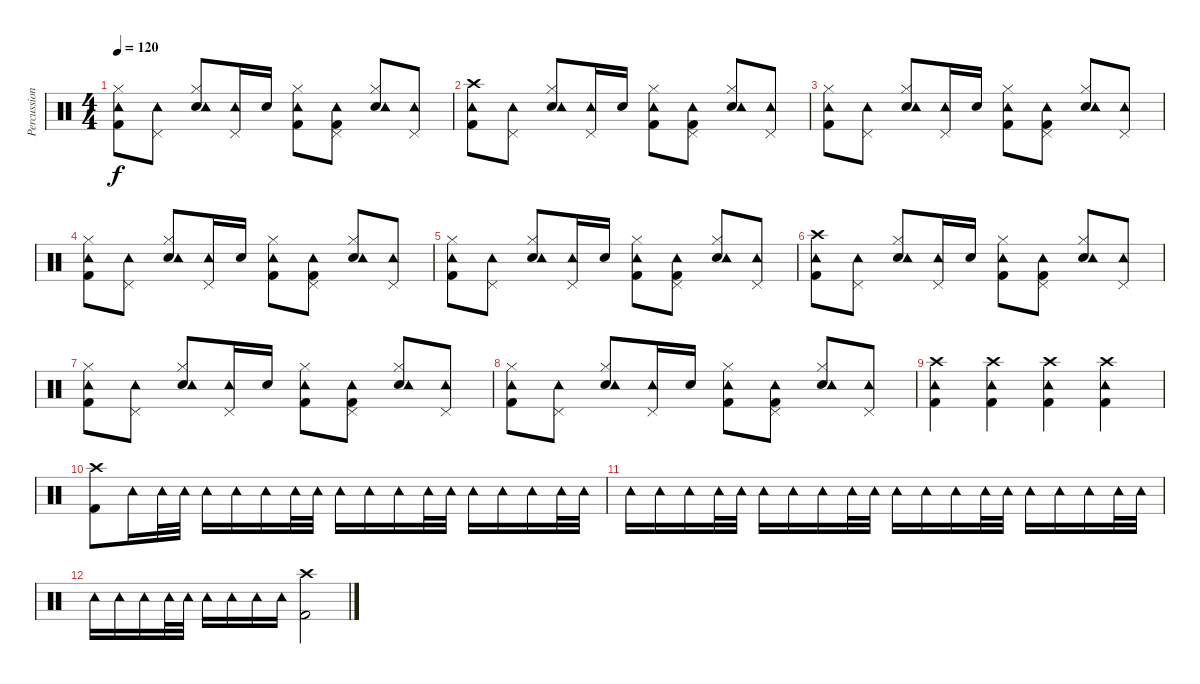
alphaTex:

\track ("Percussion" "Percussion") {instrument percussion}
\staff {score}
\articulation defaults
\ts (4 4)
\tempo 120
\clef neutral
\ks c
("Kick (hit) 2" "Tambourine (hit)" "Hi-Hat (closed)").8{dy f} ("Tambourine (hit)" "Pedal Hi-Hat (hit)").8 ("Electric Snare (hit)" "Tambourine (hit)" "Hi-Hat (closed)").8 ("Tambourine (hit)" "Pedal Hi-Hat (hit)").16 "Electric Snare (hit)".16 ("Kick (hit) 2" "Tambourine (hit)" "Hi-Hat (closed)").8 ("Kick (hit) 2" "Tambourine (hit)" "Pedal Hi-Hat (hit)").8 ("Electric Snare (hit)" "Tambourine (hit)" "Hi-Hat (closed)").8 ("Tambourine (hit)" "Pedal Hi-Hat (hit)").8 |
("Kick (hit) 2" "Tambourine (hit)" "Crash high (hit)").8 ("Tambourine (hit)" "Pedal Hi-Hat (hit)").8 ("Electric Snare (hit)" "Tambourine (hit)" "Hi-Hat (closed)").8 ("Tambourine (hit)" "Pedal Hi-Hat (hit)").16 "Electric Snare (hit)".16 ("Kick (hit) 2" "Tambourine (hit)" "Hi-Hat (closed)").8 ("Kick (hit) 2" "Tambourine (hit)" "Pedal Hi-Hat (hit)").8 ("Electric Snare (hit)" "Tambourine (hit)" "Hi-Hat (closed)").8 ("Tambourine (hit)" "Pedal Hi-Hat (hit)").8 |
("Kick (hit) 2" "Tambourine (hit)" "Hi-Hat (closed)").8 ("Tambourine (hit)" "Pedal Hi-Hat (hit)").8 ("Electric Snare (hit)" "Tambourine (hit)" "Hi-Hat (closed)").8 ("Tambourine (hit)" "Pedal Hi-Hat (hit)").16 "Electric Snare (hit)".16 ("Kick (hit) 2" "Tambourine (hit)" "Hi-Hat (closed)").8 ("Kick (hit) 2" "Tambourine (hit)" "Pedal Hi-Hat (hit)").8 ("Electric Snare (hit)" "Tambourine (hit)" "Hi-Hat (closed)").8 ("Tambourine (hit)" "Pedal Hi-Hat (hit)").8 |
("Kick (hit) 2" "Tambourine (hit)" "Hi-Hat (closed)").8 ("Tambourine (hit)" "Pedal Hi-Hat (hit)").8 ("Electric Snare (hit)" "Tambourine (hit)" "Hi-Hat (closed)").8 ("Tambourine (hit)" "Pedal Hi-Hat (hit)").16 "Electric Snare (hit)".16 ("Kick (hit) 2" "Tambourine (hit)" "Hi-Hat (closed)").8 ("Kick (hit) 2" "Tambourine (hit)" "Pedal Hi-Hat (hit)").8 ("Electric Snare (hit)" "Tambourine (hit)" "Hi-Hat (closed)").8 ("Tambourine (hit)" "Pedal Hi-Hat (hit)").8 |
("Kick (hit) 2" "Tambourine (hit)" "Hi-Hat (closed)").8 ("Tambourine (hit)" "Pedal Hi-Hat (hit)").8 ("Electric Snare (hit)" "Tambourine (hit)" "Hi-Hat (closed)").8 ("Tambourine (hit)" "Pedal Hi-Hat (hit)").16 "Electric Snare (hit)".16 ("Kick (hit) 2" "Tambourine (hit)" "Hi-Hat (closed)").8 ("Kick (hit) 2" "Tambourine (hit)" "Pedal Hi-Hat (hit)").8 ("Electric Snare (hit)" "Tambourine (hit)" "Hi-Hat (closed)").8 ("Tambourine (hit)" "Pedal Hi-Hat (hit)").8 |
("Kick (hit) 2" "Tambourine (hit)" "Crash high (hit)").8 ("Tambourine (hit)" "Pedal Hi-Hat (hit)").8 ("Electric Snare (hit)" "Tambourine (hit)" "Hi-Hat (closed)").8 ("Tambourine (hit)" "Pedal Hi-Hat (hit)").16 "Electric Snare (hit)".16 ("Kick (hit) 2" "Tambourine (hit)" "Hi-Hat (closed)").8 ("Kick (hit) 2" "Tambourine (hit)" "Pedal Hi-Hat (hit)").8 ("Electric Snare (hit)" "Tambourine (hit)" "Hi-Hat (closed)").8 ("Tambourine (hit)" "Pedal Hi-Hat (hit)").8 |
("Kick (hit) 2" "Tambourine (hit)" "Hi-Hat (closed)").8 ("Tambourine (hit)" "Pedal Hi-Hat (hit)").8 ("Electric Snare (hit)" "Tambourine (hit)" "Hi-Hat (closed)").8 ("Tambourine (hit)" "Pedal Hi-Hat (hit)").16 "Electric Snare (hit)".16 ("Kick (hit) 2" "Tambourine (hit)" "Hi-Hat (closed)").8 ("Kick (hit) 2" "Tambourine (hit)" "Pedal Hi-Hat (hit)").8 ("Electric Snare (hit)" "Tambourine (hit)" "Hi-Hat (closed)").8 ("Tambourine (hit)" "Pedal Hi-Hat (hit)").8 |
("Kick (hit) 2" "Tambourine (hit)" "Hi-Hat (closed)").8 ("Tambourine (hit)" "Pedal Hi-Hat (hit)").8 ("Electric Snare (hit)" "Tambourine (hit)" "Hi-Hat (closed)").8 ("Tambourine (hit)" "Pedal Hi-Hat (hit)").16 "Electric Snare (hit)".16 ("Kick (hit) 2" "Tambourine (hit)" "Hi-Hat (closed)").8 ("Kick (hit) 2" "Tambourine (hit)" "Pedal Hi-Hat (hit)").8 ("Electric Snare (hit)" "Tambourine (hit)" "Hi-Hat (closed)").8 ("Tambourine (hit)" "Pedal Hi-Hat (hit)").8 |
("Kick (hit) 2" "Tambourine (hit)" "Crash high (hit)").4 ("Kick (hit) 2" "Tambourine (hit)" "Crash high (hit)").4 ("Kick (hit) 2" "Tambourine (hit)" "Crash high (hit)").4 ("Kick (hit) 2" "Tambourine (hit)" "Crash high (hit)").4 |
("Kick (hit) 2" "Crash high (hit)").8 "Tambourine (hit)".16 "Tambourine (hit)".32 "Tambourine (hit)".32 "Tambourine (hit)".16 "Tambourine (hit)".16 "Tambourine (hit)".16 "Tambourine (hit)".32 "Tambourine (hit)".32 "Tambourine (hit)".16 "Tambourine (hit)".16 "Tambourine (hit)".16 "Tambourine (hit)".32 "Tambourine (hit)".32 "Tambourine (hit)".16 "Tambourine (hit)".16 "Tambourine (hit)".16 "Tambourine (hit)".32 "Tambourine (hit)".32 |
"Tambourine (hit)".16 "Tambourine (hit)".16 "Tambourine (hit)".16 "Tambourine (hit)".32 "Tambourine (hit)".32 "Tambourine (hit)".16 "Tambourine (hit)".16 "Tambourine (hit)".16 "Tambourine (hit)".32 "Tambourine (hit)".32 "Tambourine (hit)".16 "Tambourine (hit)".16 "Tambourine (hit)".16 "Tambourine (hit)".32 "Tambourine (hit)".32 "Tambourine (hit)".16 "Tambourine (hit)".16 "Tambourine (hit)".16 "Tambourine (hit)".32 "Tambourine (hit)".32 |
"Tambourine (hit)".16 "Tambourine (hit)".16 "Tambourine (hit)".16 "Tambourine (hit)".32 "Tambourine (hit)".32 "Tambourine (hit)".16 "Tambourine (hit)".16 "Tambourine (hit)".16 "Tambourine (hit)".16 ("Kick (hit) 2" "Crash high (hit)").2
